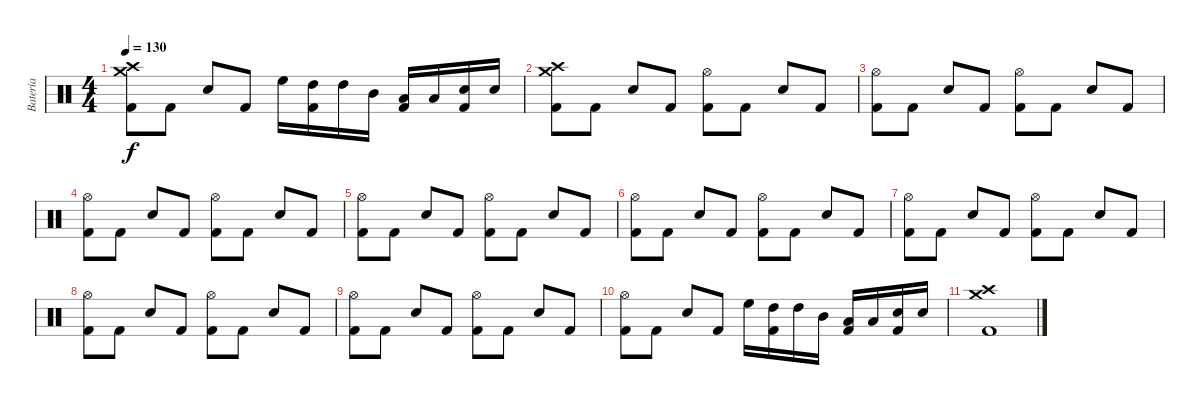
\track ("Batería" "Batería") {instrument percussion}
\staff {score}
\articulation defaults
\ts (4 4)
\tempo 130
\clef neutral
\ks c
("Crash high (hit)" "Crash medium (hit)" "Kick (hit) 2").8{dy f} "Kick (hit) 2".8 "Snare (hit) 2".8 "Kick (hit) 2".8 "High Floor Tom (hit)".16 ("High Tom (hit)" "Kick (hit) 2").16 "High Tom (hit)".16 "Mid Tom (hit)".16 ("Low Tom (hit)" "Kick (hit) 2").16 "Low Tom (hit)".16 ("Snare (hit) 2" "Kick (hit) 2").16 "Snare (hit) 2".16 |
("Crash medium (hit)" "Crash high (hit)" "Kick (hit) 2").8 "Kick (hit) 2".8 "Snare (hit) 2".8 "Kick (hit) 2".8 ("Hi-Hat (open)" "Kick (hit) 2").8 "Kick (hit) 2".8 "Snare (hit) 2".8 "Kick (hit) 2".8 |
("Hi-Hat (open)" "Kick (hit) 2").8 "Kick (hit) 2".8 "Snare (hit) 2".8 "Kick (hit) 2".8 ("Hi-Hat (open)" "Kick (hit) 2").8 "Kick (hit) 2".8 "Snare (hit) 2".8 "Kick (hit) 2".8 |
("Hi-Hat (open)" "Kick (hit) 2").8 "Kick (hit) 2".8 "Snare (hit) 2".8 "Kick (hit) 2".8 ("Hi-Hat (open)" "Kick (hit) 2").8 "Kick (hit) 2".8 "Snare (hit) 2".8 "Kick (hit) 2".8 |
("Hi-Hat (open)" "Kick (hit) 2").8 "Kick (hit) 2".8 "Snare (hit) 2".8 "Kick (hit) 2".8 ("Hi-Hat (open)" "Kick (hit) 2").8 "Kick (hit) 2".8 "Snare (hit) 2".8 "Kick (hit) 2".8 |
("Hi-Hat (open)" "Kick (hit) 2").8 "Kick (hit) 2".8 "Snare (hit) 2".8 "Kick (hit) 2".8 ("Hi-Hat (open)" "Kick (hit) 2").8 "Kick (hit) 2".8 "Snare (hit) 2".8 "Kick (hit) 2".8 |
("Hi-Hat (open)" "Kick (hit) 2").8 "Kick (hit) 2".8 "Snare (hit) 2".8 "Kick (hit) 2".8 ("Hi-Hat (open)" "Kick (hit) 2").8 "Kick (hit) 2".8 "Snare (hit) 2".8 "Kick (hit) 2".8 |
("Hi-Hat (open)" "Kick (hit) 2").8 "Kick (hit) 2".8 "Snare (hit) 2".8 "Kick (hit) 2".8 ("Hi-Hat (open)" "Kick (hit) 2").8 "Kick (hit) 2".8 "Snare (hit) 2".8 "Kick (hit) 2".8 |
("Hi-Hat (open)" "Kick (hit) 2").8 "Kick (hit) 2".8 "Snare (hit) 2".8 "Kick (hit) 2".8 ("Hi-Hat (open)" "Kick (hit) 2").8 "Kick (hit) 2".8 "Snare (hit) 2".8 "Kick (hit) 2".8 |
("Hi-Hat (open)" "Kick (hit) 2").8 "Kick (hit) 2".8 "Snare (hit) 2".8 "Kick (hit) 2".8 "High Floor Tom (hit)".16 ("High Tom (hit)" "Kick (hit) 2").16 "High Tom (hit)".16 "Mid Tom (hit)".16 ("Low Tom (hit)" "Kick (hit) 2").16 "Low Tom (hit)".16 ("Snare (hit) 2" "Kick (hit) 2").16 "Snare (hit) 2".16 |
("Crash medium (hit)" "Crash high (hit)" "Kick (hit) 2").1
